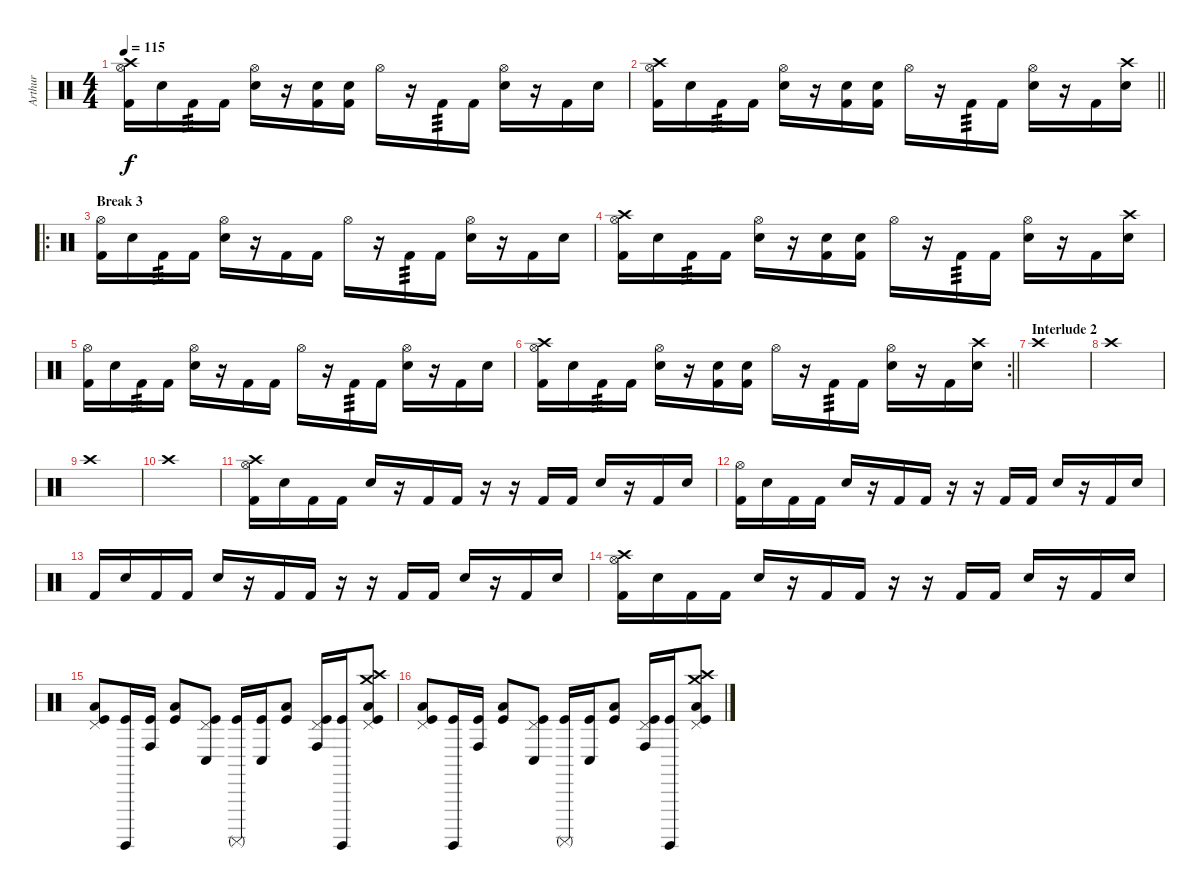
\track ("Arthur" "Arthur") {instrument percussion}
\staff {score}
\articulation defaults
\ts (4 4)
\tempo 115
\clef neutral
\ks c
("Crash high (hit)" "Hi-Hat (open)" "Kick (hit) 2").16{dy f} "Electric Snare (hit)".16 "Kick (hit) 2".16{tp 3} "Kick (hit) 2".16 ("Hi-Hat (open)" "Electric Snare (hit)").16 r.16 ("Electric Snare (hit)" "Kick (hit) 2").16 ("Electric Snare (hit)" "Kick (hit) 2").16 "Hi-Hat (open)".16 r.16 "Kick (hit) 2".16{tp 3} "Kick (hit) 2".16 ("Hi-Hat (open)" "Electric Snare (hit)").16 r.16 "Kick (hit) 2".16 "Electric Snare (hit)".16 |
\barLineRight lightlight
("Crash high (hit)" "Hi-Hat (open)" "Kick (hit) 2").16 "Electric Snare (hit)".16 "Kick (hit) 2".16{tp 3} "Kick (hit) 2".16 ("Hi-Hat (open)" "Electric Snare (hit)").16 r.16 ("Electric Snare (hit)" "Kick (hit) 2").16 ("Electric Snare (hit)" "Kick (hit) 2").16 "Hi-Hat (open)".16 r.16 "Kick (hit) 2".16{tp 3} "Kick (hit) 2".16 ("Hi-Hat (open)" "Electric Snare (hit)").16 r.16 "Kick (hit) 2".16 ("Crash high (hit)" "Electric Snare (hit)").16 |
\ro
\section ("" "Break 3")
("Hi-Hat (open)" "Kick (hit) 2").16 "Electric Snare (hit)".16 "Kick (hit) 2".16{tp 3} "Kick (hit) 2".16 ("Hi-Hat (open)" "Electric Snare (hit)").16 r.16 "Kick (hit) 2".16 "Kick (hit) 2".16 "Hi-Hat (open)".16 r.16 "Kick (hit) 2".16{tp 3} "Kick (hit) 2".16 ("Hi-Hat (open)" "Electric Snare (hit)").16 r.16 "Kick (hit) 2".16 "Electric Snare (hit)".16 |
("Crash high (hit)" "Hi-Hat (open)" "Kick (hit) 2").16 "Electric Snare (hit)".16 "Kick (hit) 2".16{tp 3} "Kick (hit) 2".16 ("Hi-Hat (open)" "Electric Snare (hit)").16 r.16 ("Electric Snare (hit)" "Kick (hit) 2").16 ("Electric Snare (hit)" "Kick (hit) 2").16 "Hi-Hat (open)".16 r.16 "Kick (hit) 2".16{tp 3} "Kick (hit) 2".16 ("Hi-Hat (open)" "Electric Snare (hit)").16 r.16 "Kick (hit) 2".16 ("Crash high (hit)" "Electric Snare (hit)").16 |
("Hi-Hat (open)" "Kick (hit) 2").16 "Electric Snare (hit)".16 "Kick (hit) 2".16{tp 3} "Kick (hit) 2".16 ("Hi-Hat (open)" "Electric Snare (hit)").16 r.16 "Kick (hit) 2".16 "Kick (hit) 2".16 "Hi-Hat (open)".16 r.16 "Kick (hit) 2".16{tp 3} "Kick (hit) 2".16 ("Hi-Hat (open)" "Electric Snare (hit)").16 r.16 "Kick (hit) 2".16 "Electric Snare (hit)".16 |
\rc 2
\barLineRight lightlight
("Crash high (hit)" "Hi-Hat (open)" "Kick (hit) 2").16 "Electric Snare (hit)".16 "Kick (hit) 2".16{tp 3} "Kick (hit) 2".16 ("Hi-Hat (open)" "Electric Snare (hit)").16 r.16 ("Electric Snare (hit)" "Kick (hit) 2").16 ("Electric Snare (hit)" "Kick (hit) 2").16 "Hi-Hat (open)".16 r.16 "Kick (hit) 2".16{tp 3} "Kick (hit) 2".16 ("Hi-Hat (open)" "Electric Snare (hit)").16 r.16 "Kick (hit) 2".16 ("Crash high (hit)" "Electric Snare (hit)").16 |
\section ("" "Interlude 2")
"Crash high (hit)".1 |
"Crash high (hit)".1 |
"Crash high (hit)".1 |
"Crash high (hit)".1 |
("Crash high (hit)" "Hi-Hat (open)" "Kick (hit) 2").16 "Electric Snare (hit)".16 "Kick (hit) 2".16 "Kick (hit) 2".16 "Electric Snare (hit)".16 r.16 "Kick (hit) 2".16 "Kick (hit) 2".16 r.16 r.16 "Kick (hit) 2".16 "Kick (hit) 2".16 "Electric Snare (hit)".16 r.16 "Kick (hit) 2".16 "Electric Snare (hit)".16 |
("Hi-Hat (open)" "Kick (hit) 2").16 "Electric Snare (hit)".16 "Kick (hit) 2".16 "Kick (hit) 2".16 "Electric Snare (hit)".16 r.16 "Kick (hit) 2".16 "Kick (hit) 2".16 r.16 r.16 "Kick (hit) 2".16 "Kick (hit) 2".16 "Electric Snare (hit)".16 r.16 "Kick (hit) 2".16 "Electric Snare (hit)".16 |
"Kick (hit) 2".16 "Electric Snare (hit)".16 "Kick (hit) 2".16 "Kick (hit) 2".16 "Electric Snare (hit)".16 r.16 "Kick (hit) 2".16 "Kick (hit) 2".16 r.16 r.16 "Kick (hit) 2".16 "Kick (hit) 2".16 "Electric Snare (hit)".16 r.16 "Kick (hit) 2".16 "Electric Snare (hit)".16 |
("Crash high (hit)" "Hi-Hat (open)" "Kick (hit) 2").16 "Electric Snare (hit)".16 "Kick (hit) 2".16 "Kick (hit) 2".16 "Electric Snare (hit)".16 r.16 "Kick (hit) 2".16 "Kick (hit) 2".16 r.16 r.16 "Kick (hit) 2".16 "Kick (hit) 2".16 "Electric Snare (hit)".16 r.16 "Kick (hit) 2".16 "Electric Snare (hit)".16 |
("Low Tom (hit)" "Pedal Hi-Hat (hit)" "Kick (hit)").8 ("Surdo (hit)" "Kick (hit)").16 ("Conga high (hit)" "Kick (hit)").16 ("Low Floor Tom (hit)" "Kick (hit)").8 ("Conga low (hit)" "Pedal Hi-Hat (hit)" "Kick (hit)").8 ("Surdo (mute)" "Kick (hit)").16 ("Conga low (hit)" "Kick (hit)").16 ("Low Tom (hit)" "Kick (hit)").8 ("Conga high (hit)" "Pedal Hi-Hat (hit)" "Kick (hit)").16 ("Surdo (hit)" "Kick (hit)").16 ("Crash high (hit)" "Crash medium (hit)" "Low Floor Tom (hit)" "Pedal Hi-Hat (hit)" "Kick (hit)").8 |
("Low Tom (hit)" "Pedal Hi-Hat (hit)" "Kick (hit)").8 ("Surdo (hit)" "Kick (hit)").16 ("Conga high (hit)" "Kick (hit)").16 ("Low Floor Tom (hit)" "Kick (hit)").8 ("Conga low (hit)" "Pedal Hi-Hat (hit)" "Kick (hit)").8 ("Surdo (mute)" "Kick (hit)").16 ("Conga low (hit)" "Kick (hit)").16 ("Low Tom (hit)" "Kick (hit)").8 ("Conga high (hit)" "Pedal Hi-Hat (hit)" "Kick (hit)").16 ("Surdo (hit)" "Kick (hit)").16 ("Crash high (hit)" "Crash medium (hit)" "Low Floor Tom (hit)" "Pedal Hi-Hat (hit)" "Kick (hit)").8
